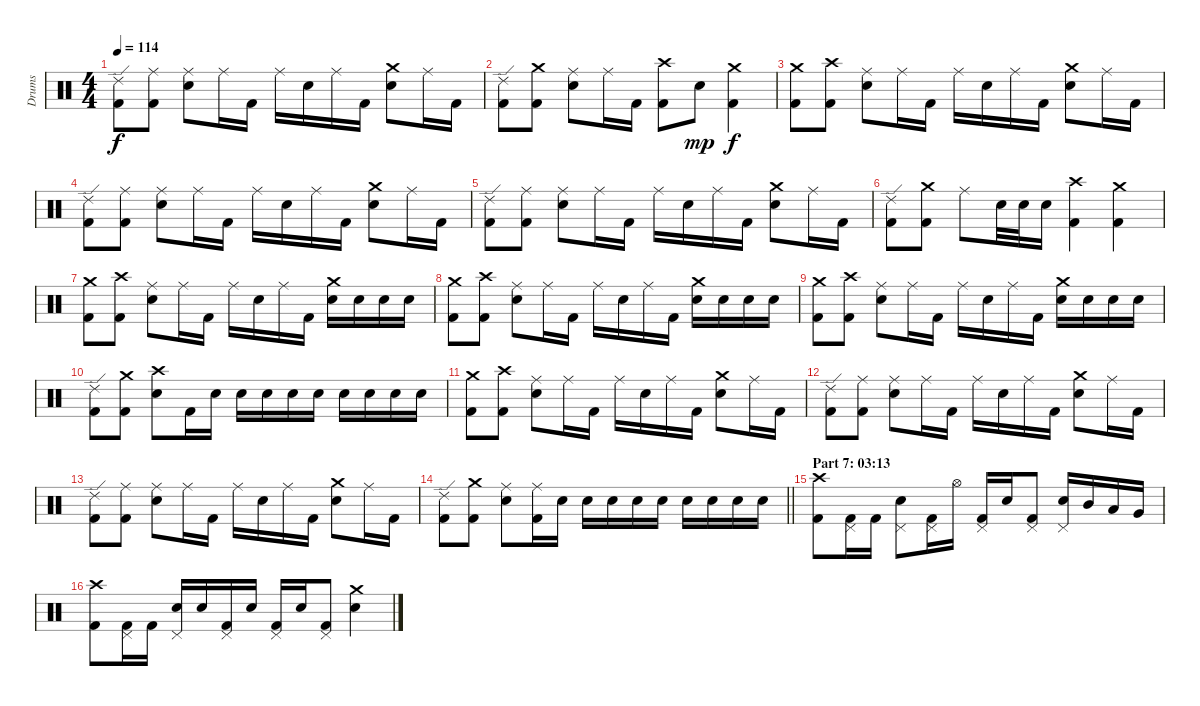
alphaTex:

\track ("Drums" "Drums") {instrument percussion}
\staff {score}
\articulation defaults
\ts (4 4)
\tempo 114
\clef neutral
\ks c
("Ride (edge) 2" "Kick (hit) 2").8{dy f} ("Ride (middle)" "Kick (hit) 2").8 ("Ride (middle)" "Electric Snare (hit)").8 "Ride (middle)".16 "Kick (hit) 2".16 "Ride (middle)".16 "Electric Snare (hit)".16 "Ride (middle)".16 "Kick (hit) 2".16 ("Crash medium (hit)" "Electric Snare (hit)").8 "Ride (middle)".16 "Kick (hit) 2".16 |
("Ride (edge) 2" "Kick (hit) 2").8 ("Crash medium (hit)" "Kick (hit) 2").8 ("Ride (middle)" "Electric Snare (hit)").8 "Ride (middle)".16 "Kick (hit) 2".16 ("Crash high (hit)" "Kick (hit) 2").8 "Electric Snare (hit)".8{dy mp} ("Crash medium (hit)" "Kick (hit) 2").4{dy f} |
("Crash medium (hit)" "Kick (hit) 2").8 ("Crash high (hit)" "Kick (hit) 2").8 ("Ride (middle)" "Electric Snare (hit)").8 "Ride (middle)".16 "Kick (hit) 2".16 "Ride (middle)".16 "Electric Snare (hit)".16 "Ride (middle)".16 "Kick (hit) 2".16 ("Crash medium (hit)" "Electric Snare (hit)").8 "Ride (middle)".16 "Kick (hit) 2".16 |
("Ride (edge) 2" "Kick (hit) 2").8 ("Ride (middle)" "Kick (hit) 2").8 ("Ride (middle)" "Electric Snare (hit)").8 "Ride (middle)".16 "Kick (hit) 2".16 "Ride (middle)".16 "Electric Snare (hit)".16 "Ride (middle)".16 "Kick (hit) 2".16 ("Crash medium (hit)" "Electric Snare (hit)").8 "Ride (middle)".16 "Kick (hit) 2".16 |
("Ride (edge) 2" "Kick (hit) 2").8 ("Ride (middle)" "Kick (hit) 2").8 ("Ride (middle)" "Electric Snare (hit)").8 "Ride (middle)".16 "Kick (hit) 2".16 "Ride (middle)".16 "Electric Snare (hit)".16 "Ride (middle)".16 "Kick (hit) 2".16 ("Crash medium (hit)" "Electric Snare (hit)").8 "Ride (middle)".16 "Kick (hit) 2".16 |
("Ride (edge) 2" "Kick (hit) 2").8 ("Crash medium (hit)" "Kick (hit) 2").8 "Ride (middle)".8 "Electric Snare (hit)".32 "Electric Snare (hit)".32 "Electric Snare (hit)".16 ("Crash high (hit)" "Kick (hit) 2").4 ("Crash medium (hit)" "Kick (hit) 2").4 |
("Crash medium (hit)" "Kick (hit) 2").8 ("Crash high (hit)" "Kick (hit) 2").8 ("Ride (middle)" "Electric Snare (hit)").8 "Ride (middle)".16 "Kick (hit) 2".16 "Ride (middle)".16 "Electric Snare (hit)".16 "Ride (middle)".16 "Kick (hit) 2".16 ("Crash medium (hit)" "Electric Snare (hit)").16 "Electric Snare (hit)".16 "Electric Snare (hit)".16 "Electric Snare (hit)".16 |
("Crash medium (hit)" "Kick (hit) 2").8 ("Crash high (hit)" "Kick (hit) 2").8 ("Ride (middle)" "Electric Snare (hit)").8 "Ride (middle)".16 "Kick (hit) 2".16 "Ride (middle)".16 "Electric Snare (hit)".16 "Ride (middle)".16 "Kick (hit) 2".16 ("Crash medium (hit)" "Electric Snare (hit)").16 "Electric Snare (hit)".16 "Electric Snare (hit)".16 "Electric Snare (hit)".16 |
("Crash medium (hit)" "Kick (hit) 2").8 ("Crash high (hit)" "Kick (hit) 2").8 ("Ride (middle)" "Electric Snare (hit)").8 "Ride (middle)".16 "Kick (hit) 2".16 "Ride (middle)".16 "Electric Snare (hit)".16 "Ride (middle)".16 "Kick (hit) 2".16 ("Crash medium (hit)" "Electric Snare (hit)").16 "Electric Snare (hit)".16 "Electric Snare (hit)".16 "Electric Snare (hit)".16 |
("Ride (edge) 2" "Kick (hit) 2").8 ("Crash medium (hit)" "Kick (hit) 2").8 ("Crash high (hit)" "Electric Snare (hit)").8 "Kick (hit) 2".16 "Electric Snare (hit)".16 "Electric Snare (hit)".16 "Electric Snare (hit)".16 "Electric Snare (hit)".16 "Electric Snare (hit)".16 "Electric Snare (hit)".16 "Electric Snare (hit)".16 "Electric Snare (hit)".16 "Electric Snare (hit)".16 |
("Crash medium (hit)" "Kick (hit) 2").8 ("Crash high (hit)" "Kick (hit) 2").8 ("Ride (middle)" "Electric Snare (hit)").8 "Ride (middle)".16 "Kick (hit) 2".16 "Ride (middle)".16 "Electric Snare (hit)".16 "Ride (middle)".16 "Kick (hit) 2".16 ("Crash medium (hit)" "Electric Snare (hit)").8 "Ride (middle)".16 "Kick (hit) 2".16 |
("Ride (edge) 2" "Kick (hit) 2").8 ("Ride (middle)" "Kick (hit) 2").8 ("Ride (middle)" "Electric Snare (hit)").8 "Ride (middle)".16 "Kick (hit) 2".16 "Ride (middle)".16 "Electric Snare (hit)".16 "Ride (middle)".16 "Kick (hit) 2".16 ("Crash medium (hit)" "Electric Snare (hit)").8 "Ride (middle)".16 "Kick (hit) 2".16 |
("Ride (edge) 2" "Kick (hit) 2").8 ("Ride (middle)" "Kick (hit) 2").8 ("Ride (middle)" "Electric Snare (hit)").8 "Ride (middle)".16 "Kick (hit) 2".16 "Ride (middle)".16 "Electric Snare (hit)".16 "Ride (middle)".16 "Kick (hit) 2".16 ("Crash medium (hit)" "Electric Snare (hit)").8 "Ride (middle)".16 "Kick (hit) 2".16 |
\barLineRight lightlight
("Ride (edge) 2" "Kick (hit) 2").8 ("Crash medium (hit)" "Kick (hit) 2").8 ("Ride (middle)" "Electric Snare (hit)").8 ("Ride (middle)" "Kick (hit) 2").16 "Electric Snare (hit)".16 "Electric Snare (hit)".16 "Electric Snare (hit)".16 "Electric Snare (hit)".16 "Electric Snare (hit)".16 "Electric Snare (hit)".16 "Electric Snare (hit)".16 "Electric Snare (hit)".16 "Electric Snare (hit)".16 |
\section ("" "Part 7: 03:13")
("Crash high (hit)" "Kick (hit) 2").8 ("Pedal Hi-Hat (hit)" "Kick (hit) 2").16 "Kick (hit) 2".16 ("Pedal Hi-Hat (hit)" "Electric Snare (hit)").8 ("Pedal Hi-Hat (hit)" "Kick (hit) 2").16 "Hi-Hat (open)".16 ("Pedal Hi-Hat (hit)" "Kick (hit) 2").16 "Electric Snare (hit)".16 ("Pedal Hi-Hat (hit)" "Kick (hit) 2").8 ("Pedal Hi-Hat (hit)" "Electric Snare (hit)").16 "Mid Tom (hit)".16 "Low Tom (hit)".16 "Very Low Tom (hit)".16 |
("Crash high (hit)" "Kick (hit) 2").8 ("Pedal Hi-Hat (hit)" "Kick (hit) 2").16 "Kick (hit) 2".16 ("Pedal Hi-Hat (hit)" "Electric Snare (hit)").16 "Electric Snare (hit)".16 ("Pedal Hi-Hat (hit)" "Kick (hit) 2").16 "Electric Snare (hit)".16 ("Pedal Hi-Hat (hit)" "Kick (hit) 2").16 "Electric Snare (hit)".16 ("Pedal Hi-Hat (hit)" "Kick (hit) 2").8 ("Crash medium (hit)" "Electric Snare (hit)").4
